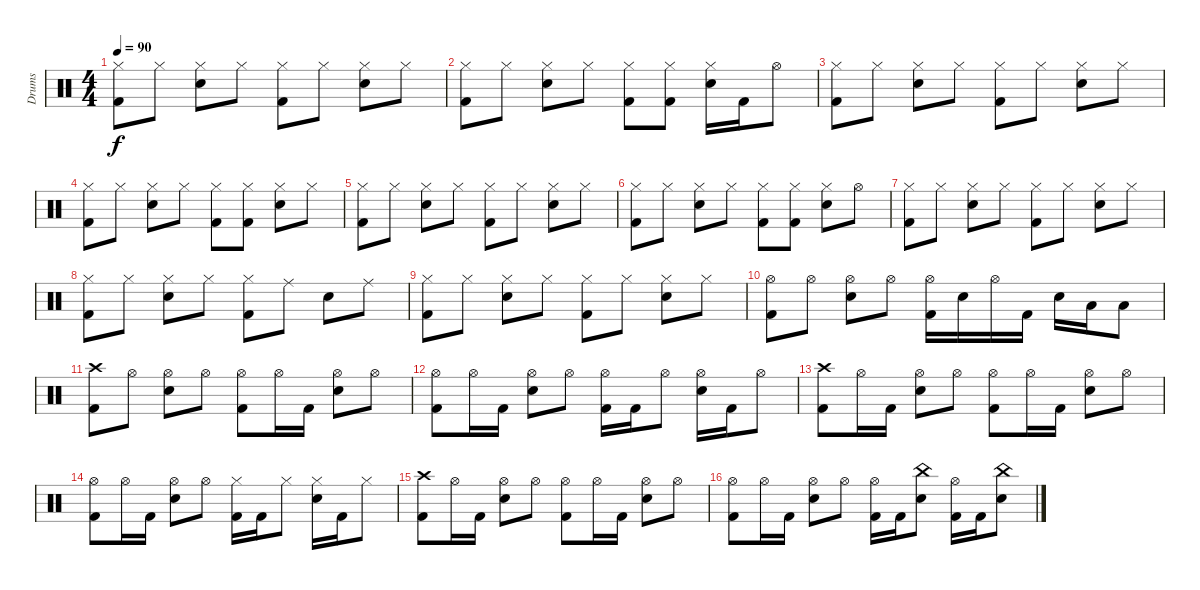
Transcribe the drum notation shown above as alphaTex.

\track ("Drums" "Drums") {instrument percussion}
\staff {score}
\articulation defaults
\ts (4 4)
\tempo 90
\clef neutral
\ks c
("Hi-Hat (closed)" "Kick (hit) 2").8{dy f} "Hi-Hat (closed)".8 ("Hi-Hat (closed)" "Electric Snare (hit)").8 "Hi-Hat (closed)".8 ("Hi-Hat (closed)" "Kick (hit) 2").8 "Hi-Hat (closed)".8 ("Hi-Hat (closed)" "Electric Snare (hit)").8 "Hi-Hat (closed)".8 |
("Hi-Hat (closed)" "Kick (hit) 2").8 "Hi-Hat (closed)".8 ("Hi-Hat (closed)" "Electric Snare (hit)").8 "Hi-Hat (closed)".8 ("Hi-Hat (closed)" "Kick (hit) 2").8 ("Hi-Hat (closed)" "Kick (hit) 2").8 ("Hi-Hat (closed)" "Electric Snare (hit)").16 "Kick (hit) 2".16 "Hi-Hat (open)".8 |
("Hi-Hat (closed)" "Kick (hit) 2").8 "Hi-Hat (closed)".8 ("Hi-Hat (closed)" "Electric Snare (hit)").8 "Hi-Hat (closed)".8 ("Hi-Hat (closed)" "Kick (hit) 2").8 "Hi-Hat (closed)".8 ("Hi-Hat (closed)" "Electric Snare (hit)").8 "Hi-Hat (closed)".8 |
("Hi-Hat (closed)" "Kick (hit) 2").8 "Hi-Hat (closed)".8 ("Hi-Hat (closed)" "Electric Snare (hit)").8 "Hi-Hat (closed)".8 ("Hi-Hat (closed)" "Kick (hit) 2").8 ("Hi-Hat (closed)" "Kick (hit) 2").8 ("Hi-Hat (closed)" "Electric Snare (hit)").8 "Hi-Hat (closed)".8 |
("Hi-Hat (closed)" "Kick (hit) 2").8 "Hi-Hat (closed)".8 ("Hi-Hat (closed)" "Electric Snare (hit)").8 "Hi-Hat (closed)".8 ("Hi-Hat (closed)" "Kick (hit) 2").8 "Hi-Hat (closed)".8 ("Hi-Hat (closed)" "Electric Snare (hit)").8 "Hi-Hat (closed)".8 |
("Hi-Hat (closed)" "Kick (hit) 2").8 "Hi-Hat (closed)".8 ("Hi-Hat (closed)" "Electric Snare (hit)").8 "Hi-Hat (closed)".8 ("Hi-Hat (closed)" "Kick (hit) 2").8 ("Hi-Hat (closed)" "Kick (hit) 2").8 ("Hi-Hat (closed)" "Electric Snare (hit)").8 "Hi-Hat (open)".8 |
("Hi-Hat (closed)" "Kick (hit) 2").8 "Hi-Hat (closed)".8 ("Hi-Hat (closed)" "Electric Snare (hit)").8 "Hi-Hat (closed)".8 ("Hi-Hat (closed)" "Kick (hit) 2").8 "Hi-Hat (closed)".8 ("Hi-Hat (closed)" "Electric Snare (hit)").8 "Hi-Hat (closed)".8 |
("Hi-Hat (closed)" "Kick (hit) 2").8 "Hi-Hat (closed)".8 ("Hi-Hat (closed)" "Electric Snare (hit)").8 "Hi-Hat (closed)".8 ("Hi-Hat (closed)" "Kick (hit) 2").8 "Ride (middle)".8 "Electric Snare (hit)".8 "Ride (middle)".8 |
("Hi-Hat (closed)" "Kick (hit) 2").8 "Hi-Hat (closed)".8 ("Hi-Hat (closed)" "Electric Snare (hit)").8 "Hi-Hat (closed)".8 ("Hi-Hat (closed)" "Kick (hit) 2").8 "Hi-Hat (closed)".8 ("Hi-Hat (closed)" "Electric Snare (hit)").8 "Hi-Hat (closed)".8 |
("Hi-Hat (open)" "Kick (hit) 2").8 "Hi-Hat (open)".8 ("Hi-Hat (open)" "Electric Snare (hit)").8 "Hi-Hat (open)".8 ("Hi-Hat (open)" "Kick (hit) 2").16 "Electric Snare (hit)".16 "Hi-Hat (open)".16 "Kick (hit) 2".16 "Electric Snare (hit)".16 "Low Tom (hit)".16 "Low Tom (hit)".8 |
("Crash high (hit)" "Kick (hit) 2").8 "Hi-Hat (open)".8 ("Hi-Hat (open)" "Electric Snare (hit)").8 "Hi-Hat (open)".8 ("Hi-Hat (open)" "Kick (hit) 2").8 "Hi-Hat (open)".16 "Kick (hit) 2".16 ("Hi-Hat (open)" "Electric Snare (hit)").8 "Hi-Hat (open)".8 |
("Hi-Hat (open)" "Kick (hit) 2").8 "Hi-Hat (open)".16 "Kick (hit) 2".16 ("Hi-Hat (open)" "Electric Snare (hit)").8 "Hi-Hat (open)".8 ("Hi-Hat (open)" "Kick (hit) 2").16 "Kick (hit) 2".16 "Hi-Hat (open)".8 ("Hi-Hat (open)" "Electric Snare (hit)").16 "Kick (hit) 2".16 "Hi-Hat (open)".8 |
("Crash high (hit)" "Kick (hit) 2").8 "Hi-Hat (open)".16 "Kick (hit) 2".16 ("Hi-Hat (open)" "Electric Snare (hit)").8 "Hi-Hat (open)".8 ("Hi-Hat (open)" "Kick (hit) 2").8 "Hi-Hat (open)".16 "Kick (hit) 2".16 ("Hi-Hat (open)" "Electric Snare (hit)").8 "Hi-Hat (open)".8 |
("Hi-Hat (open)" "Kick (hit) 2").8 "Hi-Hat (open)".16 "Kick (hit) 2".16 ("Hi-Hat (open)" "Electric Snare (hit)").8 "Hi-Hat (open)".8 ("Hi-Hat (closed)" "Kick (hit) 2").16 "Kick (hit) 2".16 "Hi-Hat (closed)".8 ("Hi-Hat (closed)" "Electric Snare (hit)").16 "Kick (hit) 2".16 "Hi-Hat (closed)".8 |
("Crash high (hit)" "Kick (hit) 2").8 "Hi-Hat (open)".16 "Kick (hit) 2".16 ("Hi-Hat (open)" "Electric Snare (hit)").8 "Hi-Hat (open)".8 ("Hi-Hat (open)" "Kick (hit) 2").8 "Hi-Hat (open)".16 "Kick (hit) 2".16 ("Hi-Hat (open)" "Electric Snare (hit)").8 "Hi-Hat (open)".8 |
("Hi-Hat (open)" "Kick (hit) 2").8 "Hi-Hat (open)".16 "Kick (hit) 2".16 ("Hi-Hat (open)" "Electric Snare (hit)").8 "Hi-Hat (open)".8 ("Hi-Hat (open)" "Kick (hit) 2").16 "Kick (hit) 2".16 ("China (hit)" "Electric Snare (hit)").8 ("Hi-Hat (open)" "Kick (hit) 2").16 "Kick (hit) 2".16 ("China (hit)" "Electric Snare (hit)").8
